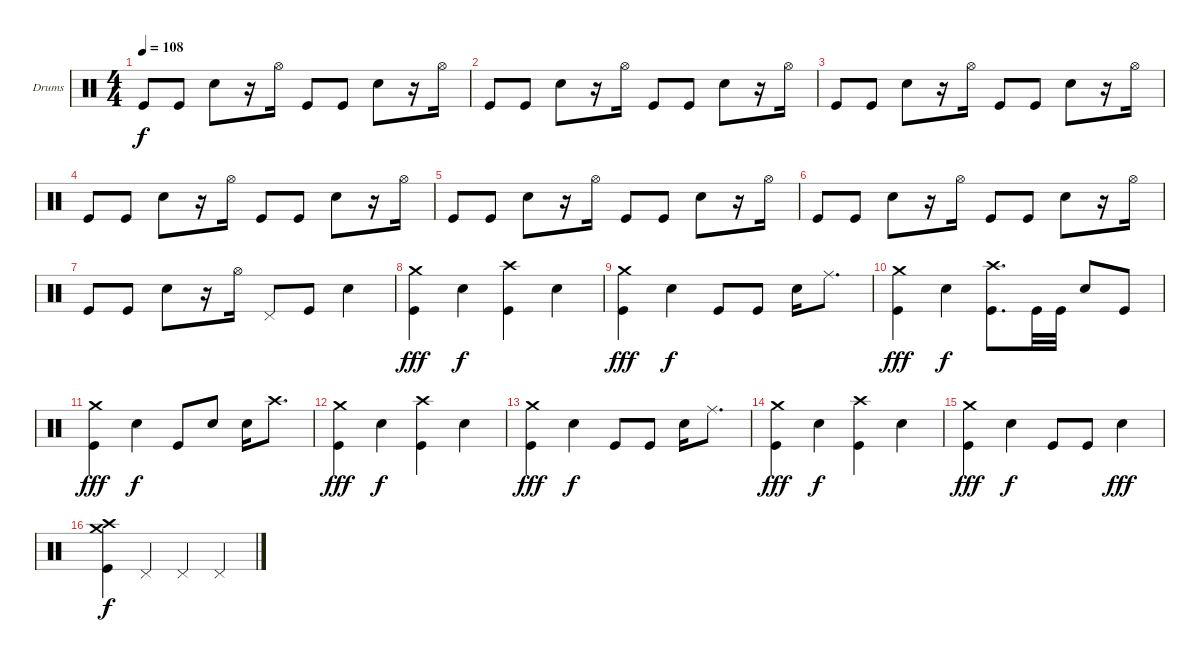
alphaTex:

\bracketExtendMode groupsimilarinstruments
\firstSystemTrackNameOrientation horizontal
\otherSystemsTrackNameOrientation horizontal
\track ("Drumkit" "Drums") {instrument percussion}
\staff {score}
\articulation defaults
\ts (4 4)
\tempo 108
\clef neutral
\ks c "Kick (hit)".8{dy f} "Kick (hit)".8 "Snare (hit) 2".8
r.16 "Hi-Hat (open)".16 "Kick (hit)".8 "Kick (hit)".8 "Snare (hit) 2".8 r.16 "Hi-Hat (open)".16 |
"Kick (hit)".8 "Kick (hit)".8 "Snare (hit) 2".8 r.16 "Hi-Hat (open)".16 "Kick (hit)".8 "Kick (hit)".8 "Snare (hit) 2".8 r.16 "Hi-Hat (open)".16 |
"Kick (hit)".8 "Kick (hit)".8 "Snare (hit) 2".8 r.16 "Hi-Hat (open)".16 "Kick (hit)".8 "Kick (hit)".8 "Snare (hit) 2".8 r.16 "Hi-Hat (open)".16 |
"Kick (hit)".8 "Kick (hit)".8 "Snare (hit) 2".8 r.16 "Hi-Hat (open)".16 "Kick (hit)".8 "Kick (hit)".8 "Snare (hit) 2".8 r.16 "Hi-Hat (open)".16 |
"Kick (hit)".8 "Kick (hit)".8 "Snare (hit) 2".8 r.16 "Hi-Hat (open)".16 "Kick (hit)".8 "Kick (hit)".8 "Snare (hit) 2".8 r.16 "Hi-Hat (open)".16 |
"Kick (hit)".8 "Kick (hit)".8 "Snare (hit) 2".8 r.16 "Hi-Hat (open)".16 "Kick (hit)".8 "Kick (hit)".8 "Snare (hit) 2".8 r.16 "Hi-Hat (open)".16 |
"Kick (hit)".8 "Kick (hit)".8 "Snare (hit) 2".8 r.16 "Hi-Hat (open)".16 "Pedal Hi-Hat (hit)".8 "Kick (hit)".8 "Snare (hit) 2".4 |
("Crash medium (hit)" "Kick (hit)").4{dy fff} "Snare (hit) 2".4{dy f} ("Crash high (hit)" "Kick (hit)").4 "Snare (hit) 2".4 |
("Crash medium (hit)" "Kick (hit)").4{dy fff} "Snare (hit) 2".4{dy f} "Kick (hit)".8 "Kick (hit)".8 "Snare (hit) 2".16 "Ride (middle)".8{d} |
("Crash medium (hit)" "Kick (hit)").4{dy fff} "Snare (hit) 2".4{dy f} ("Crash high (hit)" "Kick (hit)").8{d} "Kick (hit)".32 "Kick (hit)".32 "Snare (hit) 2".8 "Kick (hit)".8 |
("Crash medium (hit)" "Kick (hit)").4{dy fff} "Snare (hit) 2".4{dy f} "Kick (hit)".8 "Snare (hit) 2".8 "Snare (hit) 2".16 "Crash high (hit)".8{d} |
("Crash medium (hit)" "Kick (hit)").4{dy fff} "Snare (hit) 2".4{dy f} ("Crash high (hit)" "Kick (hit)").4 "Snare (hit) 2".4 |
("Crash medium (hit)" "Kick (hit)").4{dy fff} "Snare (hit) 2".4{dy f} "Kick (hit)".8 "Kick (hit)".8 "Snare (hit) 2".16 "Ride (middle)".8{d} |
("Crash medium (hit)" "Kick (hit)").4{dy fff} "Snare (hit) 2".4{dy f} ("Crash high (hit)" "Kick (hit)").4 "Snare (hit) 2".4 |
("Crash medium (hit)" "Kick (hit)").4{dy fff} "Snare (hit) 2".4{dy f} "Kick (hit)".8 "Kick (hit)".8 "Snare (hit) 2".4{dy fff} |
("Crash high (hit)" "Crash medium (hit)" "Kick (hit)").4{dy f} "Pedal Hi-Hat (hit)".4 "Pedal Hi-Hat (hit)".4 "Pedal Hi-Hat (hit)".4
